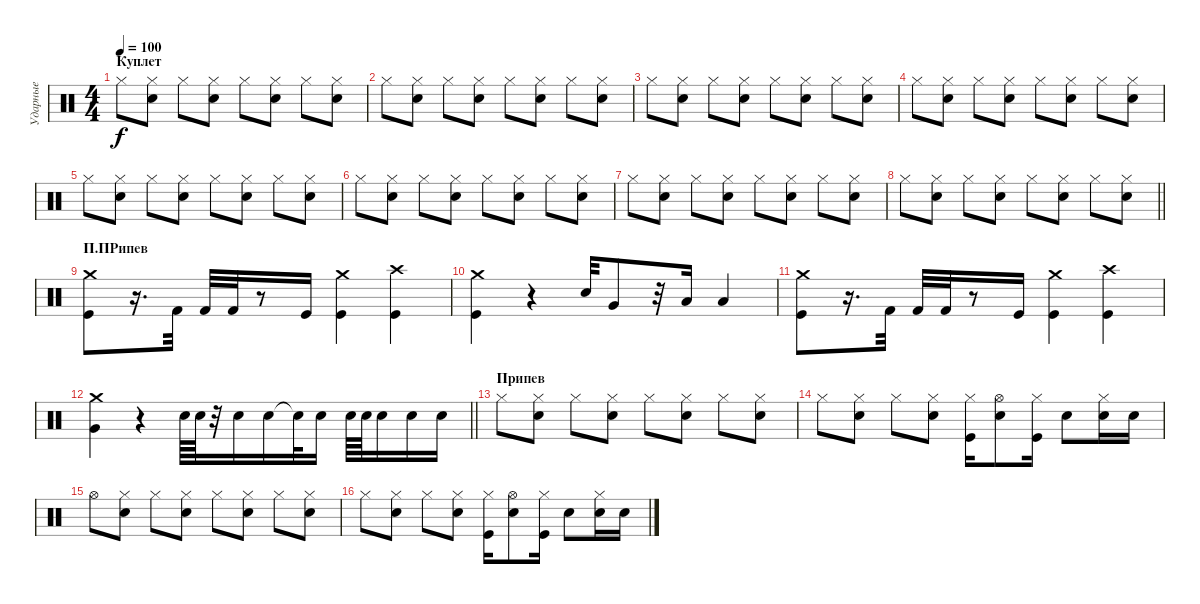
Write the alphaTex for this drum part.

\track ("Ударные" "Ударные") {instrument percussion}
\staff {score}
\articulation defaults
\ts (4 4)
\section ("" "Куплет")
\tempo 100
\clef neutral
\ks c "Hi-Hat (closed)".8{dy f}
("Hi-Hat (closed)" "Snare (hit) 2").8 "Hi-Hat (closed)".8 ("Hi-Hat (closed)" "Snare (hit) 2").8 "Hi-Hat (closed)".8 ("Hi-Hat (closed)" "Snare (hit) 2").8 "Hi-Hat (closed)".8 ("Hi-Hat (closed)" "Snare (hit) 2").8 |
"Hi-Hat (closed)".8 ("Hi-Hat (closed)" "Snare (hit) 2").8 "Hi-Hat (closed)".8 ("Hi-Hat (closed)" "Snare (hit) 2").8 "Hi-Hat (closed)".8 ("Hi-Hat (closed)" "Snare (hit) 2").8 "Hi-Hat (closed)".8 ("Hi-Hat (closed)" "Snare (hit) 2").8 |
"Hi-Hat (closed)".8 ("Hi-Hat (closed)" "Snare (hit) 2").8 "Hi-Hat (closed)".8 ("Hi-Hat (closed)" "Snare (hit) 2").8 "Hi-Hat (closed)".8 ("Hi-Hat (closed)" "Snare (hit) 2").8 "Hi-Hat (closed)".8 ("Hi-Hat (closed)" "Snare (hit) 2").8 |
"Hi-Hat (closed)".8 ("Hi-Hat (closed)" "Snare (hit) 2").8 "Hi-Hat (closed)".8 ("Hi-Hat (closed)" "Snare (hit) 2").8 "Hi-Hat (closed)".8 ("Hi-Hat (closed)" "Snare (hit) 2").8 "Hi-Hat (closed)".8 ("Hi-Hat (closed)" "Snare (hit) 2").8 |
"Hi-Hat (closed)".8 ("Hi-Hat (closed)" "Snare (hit) 2").8 "Hi-Hat (closed)".8 ("Hi-Hat (closed)" "Snare (hit) 2").8 "Hi-Hat (closed)".8 ("Hi-Hat (closed)" "Snare (hit) 2").8 "Hi-Hat (closed)".8 ("Hi-Hat (closed)" "Snare (hit) 2").8 |
"Hi-Hat (closed)".8 ("Hi-Hat (closed)" "Snare (hit) 2").8 "Hi-Hat (closed)".8 ("Hi-Hat (closed)" "Snare (hit) 2").8 "Hi-Hat (closed)".8 ("Hi-Hat (closed)" "Snare (hit) 2").8 "Hi-Hat (closed)".8 ("Hi-Hat (closed)" "Snare (hit) 2").8 |
"Hi-Hat (closed)".8 ("Hi-Hat (closed)" "Snare (hit) 2").8 "Hi-Hat (closed)".8 ("Hi-Hat (closed)" "Snare (hit) 2").8 "Hi-Hat (closed)".8 ("Hi-Hat (closed)" "Snare (hit) 2").8 "Hi-Hat (closed)".8 ("Hi-Hat (closed)" "Snare (hit) 2").8 |
\barLineRight lightlight "Hi-Hat (closed)".8
("Hi-Hat (closed)" "Snare (hit) 2").8 "Hi-Hat (closed)".8 ("Hi-Hat (closed)" "Snare (hit) 2").8 "Hi-Hat (closed)".8 ("Hi-Hat (closed)" "Snare (hit) 2").8 "Hi-Hat (closed)".8 ("Hi-Hat (closed)" "Snare (hit) 2").8 |
\section ("" "П.ПРипев")
("Kick (hit)" "Crash medium (hit)").8 r.16{d} "Kick (hit) 2".32 "Kick (hit) 2".32 "Kick (hit) 2".32 r.8 "Kick (hit)".16 ("Kick (hit)" "Crash medium (hit)").4 ("Kick (hit)" "Crash high (hit)").4 |
("Kick (hit)" "Crash medium (hit)").4 r.4 "Snare (hit) 2".32 "Very Low Tom (hit)".8 r.32 "Low Tom (hit)".16 "Low Floor Tom (hit)".4 |
("Kick (hit)" "Crash medium (hit)").8 r.16{d} "Kick (hit) 2".32 "Kick (hit) 2".32 "Kick (hit) 2".32 r.8 "Kick (hit)".16 ("Kick (hit)" "Crash medium (hit)").4 ("Kick (hit)" "Crash high (hit)").4 |
\barLineRight lightlight
("Crash medium (hit)" "Very Low Tom (hit)").4 r.4 "Electric Snare (hit)".64 "Electric Snare (hit)".64 r.32 "Electric Snare (hit)".16 "Electric Snare (hit)".16 "Snare (hit)"{t}.32 "Electric Snare (hit)".16 "Electric Snare (hit)".64 "Electric Snare (hit)".64 "Electric Snare (hit)".16 "Electric Snare (hit)".16 "Electric Snare (hit)".16 |
\section ("" "Припев")
"Hi-Hat (closed)".8 ("Hi-Hat (closed)" "Snare (hit) 2").8 "Hi-Hat (closed)".8 ("Hi-Hat (closed)" "Snare (hit) 2").8 "Hi-Hat (closed)".8 ("Hi-Hat (closed)" "Snare (hit) 2").8 "Hi-Hat (closed)".8 ("Hi-Hat (closed)" "Snare (hit) 2").8 |
"Hi-Hat (closed)".8 ("Hi-Hat (closed)" "Snare (hit) 2").8 "Hi-Hat (closed)".8 ("Hi-Hat (closed)" "Snare (hit) 2").8 ("Hi-Hat (closed)" "Kick (hit)").16 ("Hi-Hat (open)" "Electric Snare (hit)").8 ("Hi-Hat (closed)" "Kick (hit)").16 "Electric Snare (hit)".8 ("Hi-Hat (closed)" "Electric Snare (hit)").16 "Electric Snare (hit)".16 |
"Hi-Hat (open)".8 ("Hi-Hat (closed)" "Snare (hit) 2").8 "Hi-Hat (closed)".8 ("Hi-Hat (closed)" "Snare (hit) 2").8 "Hi-Hat (closed)".8 ("Hi-Hat (closed)" "Snare (hit) 2").8 "Hi-Hat (closed)".8 ("Hi-Hat (closed)" "Snare (hit) 2").8 |
"Hi-Hat (closed)".8 ("Hi-Hat (closed)" "Snare (hit) 2").8 "Hi-Hat (closed)".8 ("Hi-Hat (closed)" "Snare (hit) 2").8 ("Hi-Hat (closed)" "Kick (hit)").16 ("Hi-Hat (open)" "Electric Snare (hit)").8 ("Hi-Hat (closed)" "Kick (hit)").16 "Electric Snare (hit)".8 ("Hi-Hat (closed)" "Electric Snare (hit)").16 "Electric Snare (hit)".16
